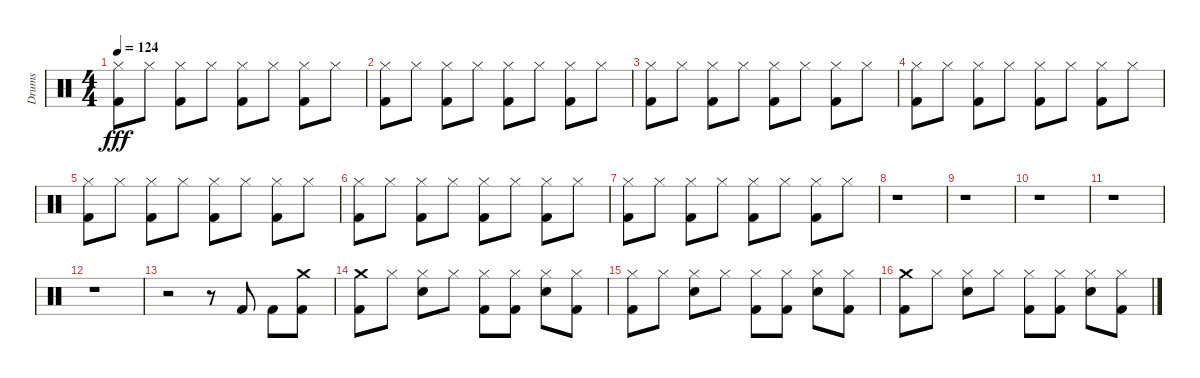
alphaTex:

\track ("Drums" "Drums") {instrument percussion}
\staff {score}
\articulation defaults
\ts (4 4)
\tempo 124
\clef neutral
\ks c
("Hi-Hat (closed)" "Kick (hit) 2").8{dy fff} "Hi-Hat (closed)".8 ("Hi-Hat (closed)" "Kick (hit) 2").8 "Hi-Hat (closed)".8 ("Hi-Hat (closed)" "Kick (hit) 2").8 "Hi-Hat (closed)".8 ("Hi-Hat (closed)" "Kick (hit) 2").8 "Hi-Hat (closed)".8 |
("Hi-Hat (closed)" "Kick (hit) 2").8 "Hi-Hat (closed)".8 ("Hi-Hat (closed)" "Kick (hit) 2").8 "Hi-Hat (closed)".8 ("Hi-Hat (closed)" "Kick (hit) 2").8 "Hi-Hat (closed)".8 ("Hi-Hat (closed)" "Kick (hit) 2").8 "Hi-Hat (closed)".8 |
("Hi-Hat (closed)" "Kick (hit) 2").8 "Hi-Hat (closed)".8 ("Hi-Hat (closed)" "Kick (hit) 2").8 "Hi-Hat (closed)".8 ("Hi-Hat (closed)" "Kick (hit) 2").8 "Hi-Hat (closed)".8 ("Hi-Hat (closed)" "Kick (hit) 2").8 "Hi-Hat (closed)".8 |
("Hi-Hat (closed)" "Kick (hit) 2").8 "Hi-Hat (closed)".8 ("Hi-Hat (closed)" "Kick (hit) 2").8 "Hi-Hat (closed)".8 ("Hi-Hat (closed)" "Kick (hit) 2").8 "Hi-Hat (closed)".8 ("Hi-Hat (closed)" "Kick (hit) 2").8 "Hi-Hat (closed)".8 |
("Hi-Hat (closed)" "Kick (hit) 2").8 "Hi-Hat (closed)".8 ("Hi-Hat (closed)" "Kick (hit) 2").8 "Hi-Hat (closed)".8 ("Hi-Hat (closed)" "Kick (hit) 2").8 "Hi-Hat (closed)".8 ("Hi-Hat (closed)" "Kick (hit) 2").8 "Hi-Hat (closed)".8 |
("Hi-Hat (closed)" "Kick (hit) 2").8 "Hi-Hat (closed)".8 ("Hi-Hat (closed)" "Kick (hit) 2").8 "Hi-Hat (closed)".8 ("Hi-Hat (closed)" "Kick (hit) 2").8 "Hi-Hat (closed)".8 ("Hi-Hat (closed)" "Kick (hit) 2").8 "Hi-Hat (closed)".8 |
("Hi-Hat (closed)" "Kick (hit) 2").8 "Hi-Hat (closed)".8 ("Hi-Hat (closed)" "Kick (hit) 2").8 "Hi-Hat (closed)".8 ("Hi-Hat (closed)" "Kick (hit) 2").8 "Hi-Hat (closed)".8 ("Hi-Hat (closed)" "Kick (hit) 2").8 "Hi-Hat (closed)".8 |
r.1 |
r.1 |
r.1 |
r.1 |
r.1 |
r.2 r.8 "Kick (hit) 2".8 "Kick (hit) 2".8 ("Crash medium (hit)" "Kick (hit) 2").8 |
("Crash medium (hit)" "Kick (hit) 2").8 "Hi-Hat (closed)".8 ("Hi-Hat (closed)" "Snare (hit) 2").8 "Hi-Hat (closed)".8 ("Hi-Hat (closed)" "Kick (hit) 2").8 ("Hi-Hat (closed)" "Kick (hit) 2").8 ("Hi-Hat (closed)" "Snare (hit) 2").8 ("Hi-Hat (closed)" "Kick (hit) 2").8 |
("Hi-Hat (closed)" "Kick (hit) 2").8 "Hi-Hat (closed)".8 ("Hi-Hat (closed)" "Snare (hit) 2").8 "Hi-Hat (closed)".8 ("Hi-Hat (closed)" "Kick (hit) 2").8 ("Hi-Hat (closed)" "Kick (hit) 2").8 ("Hi-Hat (closed)" "Snare (hit) 2").8 ("Hi-Hat (closed)" "Kick (hit) 2").8 |
("Crash medium (hit)" "Kick (hit) 2").8 "Hi-Hat (closed)".8 ("Hi-Hat (closed)" "Snare (hit) 2").8 "Hi-Hat (closed)".8 ("Hi-Hat (closed)" "Kick (hit) 2").8 ("Hi-Hat (closed)" "Kick (hit) 2").8 ("Hi-Hat (closed)" "Snare (hit) 2").8 ("Hi-Hat (closed)" "Kick (hit) 2").8
